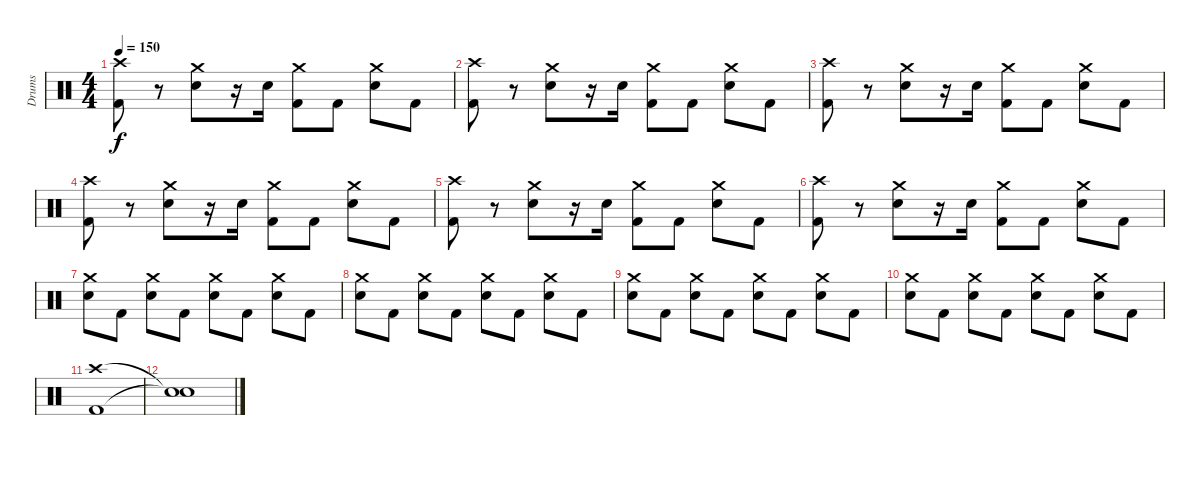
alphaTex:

\track ("Drums" "Drums") {instrument percussion}
\staff {score}
\articulation defaults
\ts (4 4)
\tempo 150
\clef neutral
\ks c
("Crash high (hit)" "Kick (hit) 2").8{dy f} r.8 ("Crash medium (hit)" "Electric Snare (hit)").8 r.16 "Electric Snare (hit)".16 ("Crash medium (hit)" "Kick (hit) 2").8 "Kick (hit) 2".8 ("Crash medium (hit)" "Electric Snare (hit)").8 "Kick (hit) 2".8 |
("Crash high (hit)" "Kick (hit) 2").8 r.8 ("Crash medium (hit)" "Electric Snare (hit)").8 r.16 "Electric Snare (hit)".16 ("Crash medium (hit)" "Kick (hit) 2").8 "Kick (hit) 2".8 ("Crash medium (hit)" "Electric Snare (hit)").8 "Kick (hit) 2".8 |
("Crash high (hit)" "Kick (hit) 2").8 r.8 ("Crash medium (hit)" "Electric Snare (hit)").8 r.16 "Electric Snare (hit)".16 ("Crash medium (hit)" "Kick (hit) 2").8 "Kick (hit) 2".8 ("Crash medium (hit)" "Electric Snare (hit)").8 "Kick (hit) 2".8 |
("Crash high (hit)" "Kick (hit) 2").8 r.8 ("Crash medium (hit)" "Electric Snare (hit)").8 r.16 "Electric Snare (hit)".16 ("Crash medium (hit)" "Kick (hit) 2").8 "Kick (hit) 2".8 ("Crash medium (hit)" "Electric Snare (hit)").8 "Kick (hit) 2".8 |
("Crash high (hit)" "Kick (hit) 2").8 r.8 ("Crash medium (hit)" "Electric Snare (hit)").8 r.16 "Electric Snare (hit)".16 ("Crash medium (hit)" "Kick (hit) 2").8 "Kick (hit) 2".8 ("Crash medium (hit)" "Electric Snare (hit)").8 "Kick (hit) 2".8 |
("Crash high (hit)" "Kick (hit) 2").8 r.8 ("Crash medium (hit)" "Electric Snare (hit)").8 r.16 "Electric Snare (hit)".16 ("Crash medium (hit)" "Kick (hit) 2").8 "Kick (hit) 2".8 ("Crash medium (hit)" "Electric Snare (hit)").8 "Kick (hit) 2".8 |
("Crash medium (hit)" "Electric Snare (hit)").8 "Kick (hit) 2".8 ("Crash medium (hit)" "Electric Snare (hit)").8 "Kick (hit) 2".8 ("Crash medium (hit)" "Electric Snare (hit)").8 "Kick (hit) 2".8 ("Crash medium (hit)" "Electric Snare (hit)").8 "Kick (hit) 2".8 |
("Crash medium (hit)" "Electric Snare (hit)").8 "Kick (hit) 2".8 ("Crash medium (hit)" "Electric Snare (hit)").8 "Kick (hit) 2".8 ("Crash medium (hit)" "Electric Snare (hit)").8 "Kick (hit) 2".8 ("Crash medium (hit)" "Electric Snare (hit)").8 "Kick (hit) 2".8 |
("Crash medium (hit)" "Electric Snare (hit)").8 "Kick (hit) 2".8 ("Crash medium (hit)" "Electric Snare (hit)").8 "Kick (hit) 2".8 ("Crash medium (hit)" "Electric Snare (hit)").8 "Kick (hit) 2".8 ("Crash medium (hit)" "Electric Snare (hit)").8 "Kick (hit) 2".8 |
("Crash medium (hit)" "Electric Snare (hit)").8 "Kick (hit) 2".8 ("Crash medium (hit)" "Electric Snare (hit)").8 "Kick (hit) 2".8 ("Crash medium (hit)" "Electric Snare (hit)").8 "Kick (hit) 2".8 ("Crash medium (hit)" "Electric Snare (hit)").8 "Kick (hit) 2".8 |
("Crash high (hit)" "Kick (hit) 2").1 |
("Snare (hit)"{t} "Snare (hit)"{t}).1
